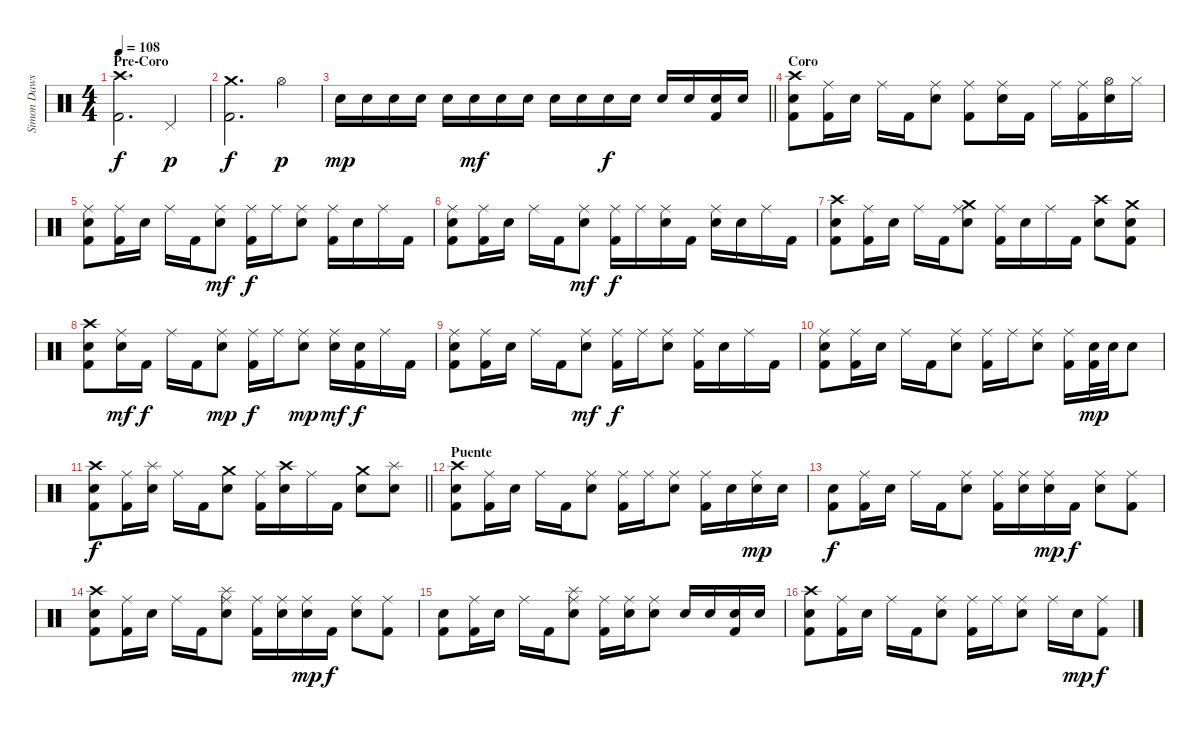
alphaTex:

\track ("Simon Dawson" "Simon Daws") {instrument percussion}
\staff {score}
\articulation defaults
\ts (4 4)
\section ("" "Pre-Coro")
\tempo 108
\clef neutral
\ks c
("Crash high (hit)" "Kick (hit) 2").2{d dy f} "Pedal Hi-Hat (hit)".4{dy p} |
("Crash medium (hit)" "Kick (hit) 2").2{d dy f} "Hi-Hat (open)".4{dy p} |
\barLineRight lightlight "Snare (hit) 2".16{dy mp} "Snare (hit) 2".16 "Snare (hit) 2".16 "Snare (hit) 2".16 "Snare (hit) 2".16 "Snare (hit) 2".16{dy mf} "Snare (hit) 2".16 "Snare (hit) 2".16 "Snare (hit) 2".16 "Snare (hit) 2".16 "Snare (hit) 2".16{dy f} "Snare (hit) 2".16 "Snare (hit) 2".16 "Snare (hit) 2".16
("Snare (hit) 2" "Kick (hit) 2").16 "Snare (hit) 2".16 |
\section ("" "Coro")
("Snare (hit) 2" "Crash high (hit)" "Kick (hit) 2").8 ("Ride (middle)" "Kick (hit) 2").16 "Snare (hit) 2".16 "Ride (middle)".16 "Kick (hit) 2".16 ("Ride (middle)" "Snare (hit) 2").8 ("Ride (middle)" "Kick (hit) 2").8 ("Ride (middle)" "Snare (hit) 2").16 "Kick (hit) 2".16 "Ride (middle)".16 ("Ride (middle)" "Kick (hit) 2").16 ("Hi-Hat (open)" "Snare (hit) 2").16 "Hi-Hat (closed)".16 |
("Ride (middle)" "Snare (hit) 2" "Kick (hit) 2").8 ("Ride (middle)" "Kick (hit) 2").16 "Snare (hit) 2".16 "Ride (middle)".16 "Kick (hit) 2".16 ("Ride (middle)" "Snare (hit) 2").8{dy mf} ("Ride (middle)" "Kick (hit) 2").16{dy f} "Ride (middle)".16 ("Ride (middle)" "Snare (hit) 2").8 ("Ride (middle)" "Kick (hit) 2").16 "Snare (hit) 2".16 "Ride (middle)".16 "Kick (hit) 2".16 |
("Ride (middle)" "Snare (hit) 2" "Kick (hit) 2").8 ("Ride (middle)" "Kick (hit) 2").16 "Snare (hit) 2".16 "Ride (middle)".16 "Kick (hit) 2".16 ("Ride (middle)" "Snare (hit) 2").8{dy mf} ("Ride (middle)" "Kick (hit) 2").16{dy f} "Ride (middle)".16 ("Ride (middle)" "Snare (hit) 2").16 "Kick (hit) 2".16 ("Ride (middle)" "Snare (hit) 2").16 "Snare (hit) 2".16 "Ride (middle)".16 "Kick (hit) 2".16 |
("Snare (hit) 2" "Crash high (hit)" "Kick (hit) 2").8 ("Ride (middle)" "Kick (hit) 2").16 "Snare (hit) 2".16 "Ride (middle)".16 "Kick (hit) 2".16 ("Ride (middle)" "Snare (hit) 2" "Crash medium (hit)").8 ("Ride (middle)" "Kick (hit) 2").16 "Snare (hit) 2".16 "Ride (middle)".16 "Kick (hit) 2".16 ("Snare (hit) 2" "Crash high (hit)").8 ("Snare (hit) 2" "Crash medium (hit)" "Kick (hit) 2").8 |
("Snare (hit) 2" "Crash high (hit)" "Kick (hit) 2").8 ("Ride (middle)" "Snare (hit) 2").16{dy mf} "Kick (hit) 2".16{dy f} "Ride (middle)".16 "Kick (hit) 2".16 ("Ride (middle)" "Snare (hit) 2").8{dy mp} ("Ride (middle)" "Kick (hit) 2").16{dy f} "Ride (middle)".16 ("Ride (middle)" "Snare (hit) 2").8{dy mp} ("Ride (middle)" "Snare (hit) 2").16{dy mf} ("Snare (hit) 2" "Kick (hit) 2").16{dy f} "Ride (middle)".16 "Kick (hit) 2".16 |
("Ride (middle)" "Snare (hit) 2" "Kick (hit) 2").8 ("Ride (middle)" "Kick (hit) 2").16 "Snare (hit) 2".16 "Ride (middle)".16 "Kick (hit) 2".16 ("Ride (middle)" "Snare (hit) 2").8{dy mf} ("Ride (middle)" "Kick (hit) 2").16{dy f} "Ride (middle)".16 ("Ride (middle)" "Snare (hit) 2").8 ("Ride (middle)" "Kick (hit) 2").16 "Snare (hit) 2".16 "Ride (middle)".16 "Kick (hit) 2".16 |
("Ride (middle)" "Snare (hit) 2" "Kick (hit) 2").8 ("Ride (middle)" "Kick (hit) 2").16 "Snare (hit) 2".16 "Ride (middle)".16 "Kick (hit) 2".16 ("Ride (middle)" "Snare (hit) 2").8 ("Ride (middle)" "Kick (hit) 2").16 "Ride (middle)".16 ("Ride (middle)" "Snare (hit) 2").8 ("Ride (middle)" "Kick (hit) 2").16 ("Snare (hit) 2" "Kick (hit) 2").32{dy mp} "Snare (hit) 2".32 "Snare (hit) 2".8 |
\barLineRight lightlight
("Snare (hit) 2" "Crash high (hit)" "Kick (hit) 2").8{dy f} ("Ride (middle)" "Kick (hit) 2").16 ("Snare (hit) 2" "Splash (hit)").16 "Ride (middle)".16 "Kick (hit) 2".16 ("Snare (hit) 2" "Crash medium (hit)").8 ("Ride (middle)" "Kick (hit) 2").16 ("Snare (hit) 2" "Crash high (hit)").16 "Ride (middle)".16 "Kick (hit) 2".16 ("Snare (hit) 2" "Crash medium (hit)").8 ("Snare (hit) 2" "Splash (hit)").8 |
\section ("" "Puente")
("Snare (hit) 2" "Crash high (hit)" "Kick (hit) 2").8 ("Ride (middle)" "Kick (hit) 2").16 "Snare (hit) 2".16 "Ride (middle)".16 "Kick (hit) 2".16 ("Ride (middle)" "Snare (hit) 2").8 ("Ride (middle)" "Kick (hit) 2").16 "Ride (middle)".16 ("Ride (middle)" "Snare (hit) 2").8 ("Ride (middle)" "Kick (hit) 2").16 "Snare (hit) 2".16 ("Ride (middle)" "Snare (hit) 2").16{dy mp} "Snare (hit) 2".16 |
("Snare (hit) 2" "Kick (hit) 2").8{dy f} ("Ride (middle)" "Kick (hit) 2").16 "Snare (hit) 2".16 "Ride (middle)".16 "Kick (hit) 2".16 ("Ride (middle)" "Snare (hit) 2").8 ("Ride (middle)" "Kick (hit) 2").16 ("Ride (middle)" "Snare (hit) 2").16 ("Ride (middle)" "Snare (hit) 2").16{dy mp} "Kick (hit) 2".16{dy f} ("Ride (middle)" "Snare (hit) 2").8 ("Ride (middle)" "Kick (hit) 2").8 |
("Snare (hit) 2" "Crash high (hit)" "Kick (hit) 2").8 ("Ride (middle)" "Kick (hit) 2").16 "Snare (hit) 2".16 "Ride (middle)".16 "Kick (hit) 2".16 ("Ride (middle)" "Snare (hit) 2" "Splash (hit)").8 ("Ride (middle)" "Kick (hit) 2").16 ("Ride (middle)" "Snare (hit) 2").16 ("Ride (middle)" "Snare (hit) 2").16{dy mp} "Kick (hit) 2".16{dy f} ("Ride (middle)" "Snare (hit) 2").8 ("Ride (middle)" "Kick (hit) 2").8 |
("Snare (hit) 2" "Kick (hit) 2").8 ("Ride (middle)" "Kick (hit) 2").16 "Snare (hit) 2".16 "Ride (middle)".16 "Kick (hit) 2".16 ("Ride (middle)" "Snare (hit) 2" "Splash (hit)").8 ("Ride (middle)" "Kick (hit) 2").16 ("Ride (middle)" "Snare (hit) 2").16 ("Ride (middle)" "Snare (hit) 2").8 "Snare (hit) 2".16 "Snare (hit) 2".16 ("Snare (hit) 2" "Kick (hit) 2").16 "Snare (hit) 2".16 |
("Snare (hit) 2" "Crash high (hit)" "Kick (hit) 2").8 ("Ride (middle)" "Kick (hit) 2").16 "Snare (hit) 2".16 "Ride (middle)".16 "Kick (hit) 2".16 ("Ride (middle)" "Snare (hit) 2").8 ("Ride (middle)" "Kick (hit) 2").16 "Ride (middle)".16 ("Ride (middle)" "Snare (hit) 2").8 "Ride (middle)".16 "Snare (hit) 2".16{dy mp} ("Ride (middle)" "Kick (hit) 2").8{dy f}
